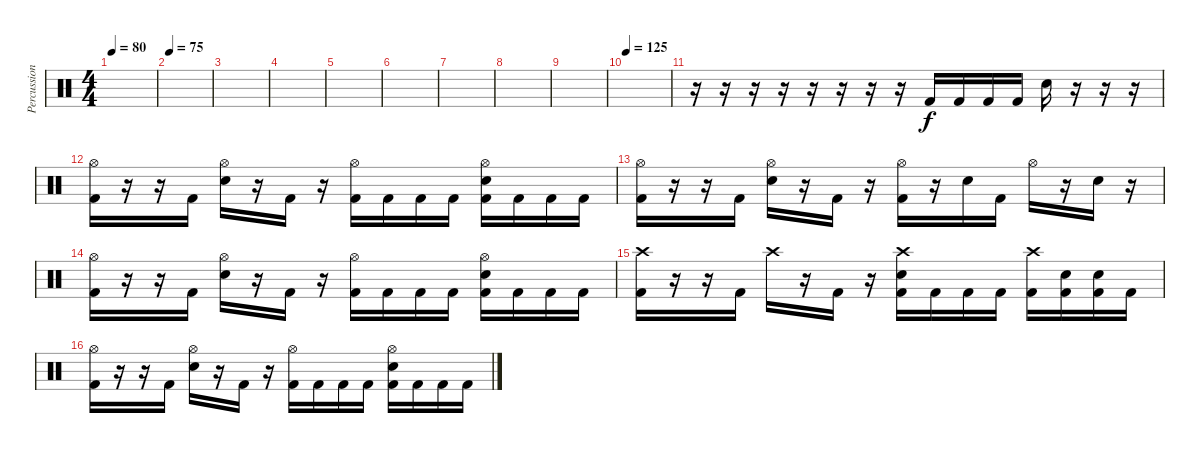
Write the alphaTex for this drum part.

\track ("Percussion" "Percussion") {instrument percussion}
\staff {score}
\articulation defaults
\ts (4 4)
\tempo 80
\clef neutral
\ks c
|
\tempo 75
|
|
|
|
|
|
|
|
\tempo 125
|
r.16 r.16 r.16 r.16 r.16 r.16 r.16 r.16 "Kick (hit) 2".16 "Kick (hit) 2".16 "Kick (hit) 2".16 "Kick (hit) 2".16 "Electric Snare (hit)".16 r.16 r.16 r.16 |
("Hi-Hat (open)" "Kick (hit) 2").16 r.16 r.16 "Kick (hit) 2".16 ("Hi-Hat (open)" "Electric Snare (hit)").16 r.16 "Kick (hit) 2".16 r.16 ("Hi-Hat (open)" "Kick (hit) 2").16 "Kick (hit) 2".16 "Kick (hit) 2".16 "Kick (hit) 2".16 ("Hi-Hat (open)" "Electric Snare (hit)" "Kick (hit) 2").16 "Kick (hit) 2".16 "Kick (hit) 2".16 "Kick (hit) 2".16 |
("Hi-Hat (open)" "Kick (hit) 2").16 r.16 r.16 "Kick (hit) 2".16 ("Hi-Hat (open)" "Electric Snare (hit)").16 r.16 "Kick (hit) 2".16 r.16 ("Hi-Hat (open)" "Kick (hit) 2").16 r.16 "Electric Snare (hit)".16 "Kick (hit) 2".16 "Hi-Hat (open)".16 r.16 "Electric Snare (hit)".16 r.16 |
("Hi-Hat (open)" "Kick (hit) 2").16 r.16 r.16 "Kick (hit) 2".16 ("Hi-Hat (open)" "Electric Snare (hit)").16 r.16 "Kick (hit) 2".16 r.16 ("Hi-Hat (open)" "Kick (hit) 2").16 "Kick (hit) 2".16 "Kick (hit) 2".16 "Kick (hit) 2".16 ("Hi-Hat (open)" "Electric Snare (hit)" "Kick (hit) 2").16 "Kick (hit) 2".16 "Kick (hit) 2".16 "Kick (hit) 2".16 |
("Crash high (hit)" "Kick (hit) 2").16 r.16 r.16 "Kick (hit) 2".16 "Crash high (hit)".16 r.16 "Kick (hit) 2".16 r.16 ("Crash high (hit)" "Electric Snare (hit)" "Kick (hit) 2").16 "Kick (hit) 2".16 "Kick (hit) 2".16 "Kick (hit) 2".16 ("Crash high (hit)" "Kick (hit) 2").16 ("Electric Snare (hit)" "Kick (hit) 2").16 ("Electric Snare (hit)" "Kick (hit) 2").16 "Kick (hit) 2".16 |
("Hi-Hat (open)" "Kick (hit) 2").16 r.16 r.16 "Kick (hit) 2".16 ("Hi-Hat (open)" "Electric Snare (hit)").16 r.16 "Kick (hit) 2".16 r.16 ("Hi-Hat (open)" "Kick (hit) 2").16 "Kick (hit) 2".16 "Kick (hit) 2".16 "Kick (hit) 2".16 ("Hi-Hat (open)" "Electric Snare (hit)" "Kick (hit) 2").16 "Kick (hit) 2".16 "Kick (hit) 2".16 "Kick (hit) 2".16
